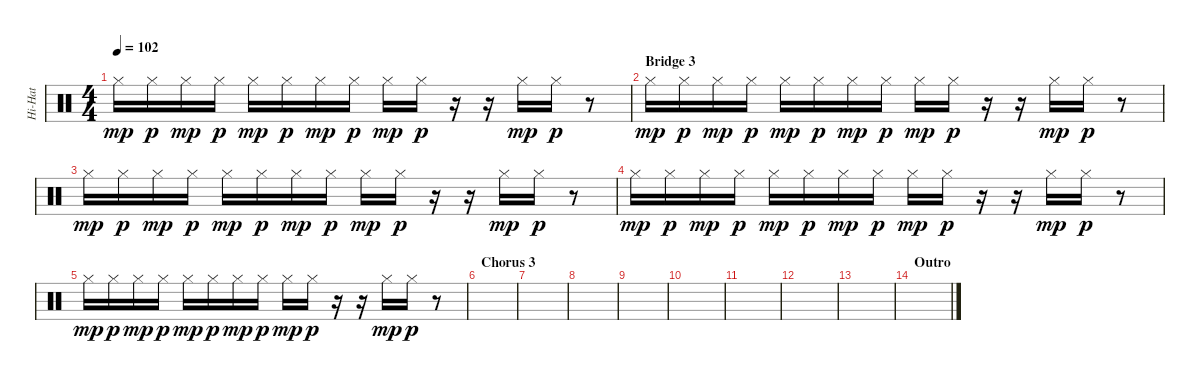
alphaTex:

\track ("Hi-Hat" "Hi-Hat") {instrument percussion}
\staff {score}
\articulation defaults
\ts (4 4)
\tempo 102
\clef neutral
\ks c "Hi-Hat (closed)".16{dy mp} "Hi-Hat (closed)".16{dy p} "Hi-Hat (closed)".16{dy mp} "Hi-Hat (closed)".16{dy p} "Hi-Hat (closed)".16{dy mp} "Hi-Hat (closed)".16{dy p} "Hi-Hat (closed)".16{dy mp} "Hi-Hat (closed)".16{dy p} "Hi-Hat (closed)".16{dy mp} "Hi-Hat (closed)".16{dy p}
r.16 r.16 "Hi-Hat (closed)".16{dy mp} "Hi-Hat (closed)".16{dy p} r.8 |
\section ("" "Bridge 3")
"Hi-Hat (closed)".16{dy mp} "Hi-Hat (closed)".16{dy p} "Hi-Hat (closed)".16{dy mp} "Hi-Hat (closed)".16{dy p} "Hi-Hat (closed)".16{dy mp} "Hi-Hat (closed)".16{dy p} "Hi-Hat (closed)".16{dy mp} "Hi-Hat (closed)".16{dy p} "Hi-Hat (closed)".16{dy mp} "Hi-Hat (closed)".16{dy p} r.16 r.16 "Hi-Hat (closed)".16{dy mp} "Hi-Hat (closed)".16{dy p} r.8 |
"Hi-Hat (closed)".16{dy mp} "Hi-Hat (closed)".16{dy p} "Hi-Hat (closed)".16{dy mp} "Hi-Hat (closed)".16{dy p} "Hi-Hat (closed)".16{dy mp} "Hi-Hat (closed)".16{dy p} "Hi-Hat (closed)".16{dy mp} "Hi-Hat (closed)".16{dy p} "Hi-Hat (closed)".16{dy mp} "Hi-Hat (closed)".16{dy p} r.16 r.16 "Hi-Hat (closed)".16{dy mp} "Hi-Hat (closed)".16{dy p} r.8 |
"Hi-Hat (closed)".16{dy mp} "Hi-Hat (closed)".16{dy p} "Hi-Hat (closed)".16{dy mp} "Hi-Hat (closed)".16{dy p} "Hi-Hat (closed)".16{dy mp} "Hi-Hat (closed)".16{dy p} "Hi-Hat (closed)".16{dy mp} "Hi-Hat (closed)".16{dy p} "Hi-Hat (closed)".16{dy mp} "Hi-Hat (closed)".16{dy p} r.16 r.16 "Hi-Hat (closed)".16{dy mp} "Hi-Hat (closed)".16{dy p} r.8 |
"Hi-Hat (closed)".16{dy mp} "Hi-Hat (closed)".16{dy p} "Hi-Hat (closed)".16{dy mp} "Hi-Hat (closed)".16{dy p} "Hi-Hat (closed)".16{dy mp} "Hi-Hat (closed)".16{dy p} "Hi-Hat (closed)".16{dy mp} "Hi-Hat (closed)".16{dy p} "Hi-Hat (closed)".16{dy mp} "Hi-Hat (closed)".16{dy p} r.16 r.16 "Hi-Hat (closed)".16{dy mp} "Hi-Hat (closed)".16{dy p} r.8 |
\section ("" "Chorus 3")
|
|
|
|
|
|
|
|
\section ("" "Outro")
